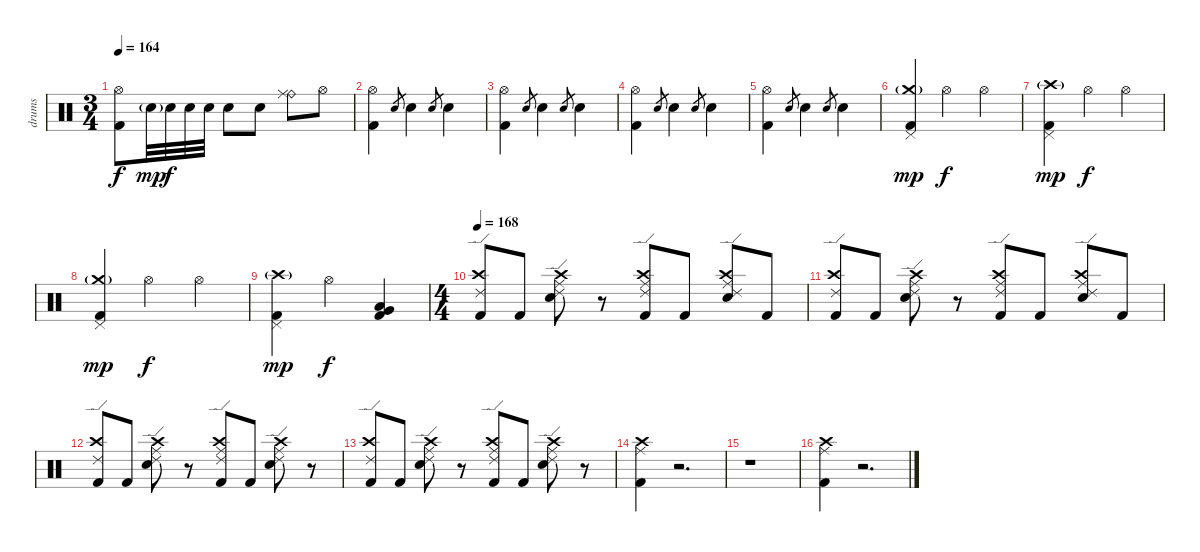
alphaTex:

\track ("drums" "drums") {instrument percussion}
\staff {score}
\articulation defaults
\ts (3 4)
\tempo 164
\clef neutral
\ks c
("Hi-Hat (open)" "Kick (hit) 2").8{dy f} "Snare (hit) 2"{g}.32{dy mp} "Snare (hit) 2".32{dy f} "Snare (hit) 2".32 "Snare (hit) 2".32 "Snare (hit) 2".8 "Snare (hit) 2".8 ("Ride (bell)" "Ride (middle)").8 "Hi-Hat (open)".8 |
("Hi-Hat (open)" "Kick (hit) 2").4 "Snare (hit) 2".8{gr} "Snare (hit) 2".4 "Snare (hit) 2".8{gr} "Snare (hit) 2".4 |
("Hi-Hat (open)" "Kick (hit) 2").4 "Snare (hit) 2".8{gr} "Snare (hit) 2".4 "Snare (hit) 2".8{gr} "Snare (hit) 2".4 |
("Hi-Hat (open)" "Kick (hit) 2").4 "Snare (hit) 2".8{gr} "Snare (hit) 2".4 "Snare (hit) 2".8{gr} "Snare (hit) 2".4 |
("Hi-Hat (open)" "Kick (hit) 2").4 "Snare (hit) 2".8{gr} "Snare (hit) 2".4 "Snare (hit) 2".8{gr} "Snare (hit) 2".4 |
("Crash medium (hit)"{g} "Pedal Hi-Hat (hit)" "Kick (hit) 2").4{dy mp} "Hi-Hat (open)".4{dy f} "Hi-Hat (open)".4 |
("Crash high (hit)"{g} "Pedal Hi-Hat (hit)" "Kick (hit) 2").4{dy mp} "Hi-Hat (open)".4{dy f} "Hi-Hat (open)".4 |
("Crash medium (hit)"{g} "Pedal Hi-Hat (hit)" "Kick (hit) 2").4{dy mp} "Hi-Hat (open)".4{dy f} "Hi-Hat (open)".4 |
("Crash high (hit)"{g} "Pedal Hi-Hat (hit)" "Kick (hit) 2").4{dy mp} "Hi-Hat (open)".4{dy f} ("Very Low Tom (hit)" "Low Floor Tom (hit)" "Kick (hit) 2").4 |
\ts (4 4)
\tempo 168
("Crash high (hit)" "Ride (edge) 2" "Kick (hit) 2").8 "Kick (hit) 2".8 ("Crash high (hit)" "Ride (edge) 2" "Ride (middle)" "Snare (hit) 2").8 r.8 ("Crash high (hit)" "Ride (edge) 2" "Ride (middle)" "Kick (hit) 2").8 "Kick (hit) 2".8 ("Crash high (hit)" "Ride (edge) 2" "Ride (middle)" "Snare (hit) 2").8 "Kick (hit) 2".8 |
("Crash high (hit)" "Ride (edge) 2" "Kick (hit) 2").8 "Kick (hit) 2".8 ("Crash high (hit)" "Ride (edge) 2" "Ride (middle)" "Snare (hit) 2").8 r.8 ("Crash high (hit)" "Ride (edge) 2" "Ride (middle)" "Kick (hit) 2").8 "Kick (hit) 2".8 ("Crash high (hit)" "Ride (edge) 2" "Ride (middle)" "Snare (hit) 2").8 "Kick (hit) 2".8 |
("Crash high (hit)" "Ride (edge) 2" "Kick (hit) 2").8 "Kick (hit) 2".8 ("Crash high (hit)" "Ride (edge) 2" "Ride (middle)" "Snare (hit) 2").8 r.8 ("Crash high (hit)" "Ride (edge) 2" "Ride (middle)" "Kick (hit) 2").8 "Kick (hit) 2".8 ("Crash high (hit)" "Ride (edge) 2" "Ride (middle)" "Snare (hit) 2").8 r.8 |
("Crash high (hit)" "Ride (edge) 2" "Kick (hit) 2").8 "Kick (hit) 2".8 ("Crash high (hit)" "Ride (edge) 2" "Ride (middle)" "Snare (hit) 2").8 r.8 ("Crash high (hit)" "Ride (edge) 2" "Ride (middle)" "Kick (hit) 2").8 "Kick (hit) 2".8 ("Crash high (hit)" "Ride (edge) 2" "Ride (middle)" "Snare (hit) 2").8 r.8 |
("Crash high (hit)" "Ride (middle)" "Kick (hit) 2").4 r.2{d} |
r.1 |
("Crash high (hit)" "Ride (middle)" "Kick (hit) 2").4 r.2{d}
